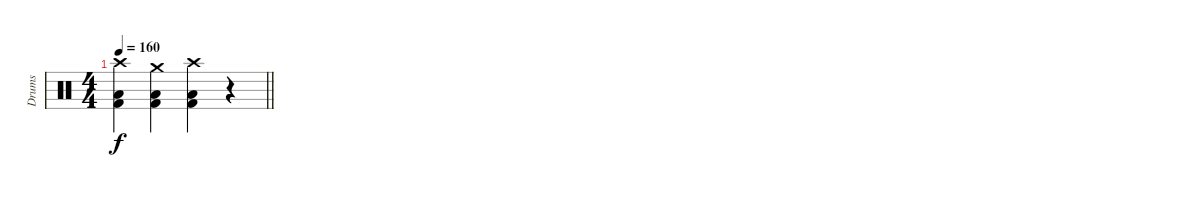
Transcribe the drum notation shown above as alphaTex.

\track ("Drums" "Drums") {instrument percussion}
\staff {score}
\articulation defaults
\ts (4 4)
\tempo 160
\clef neutral
\barLineRight lightlight
\ks c
("Crash high (hit)" "Low Floor Tom (hit)" "Kick (hit) 2").4{dy f} ("Crash medium (hit)" "Low Floor Tom (hit)" "Kick (hit) 2").4 ("Crash high (hit)" "Low Floor Tom (hit)" "Kick (hit) 2").4 r.4
